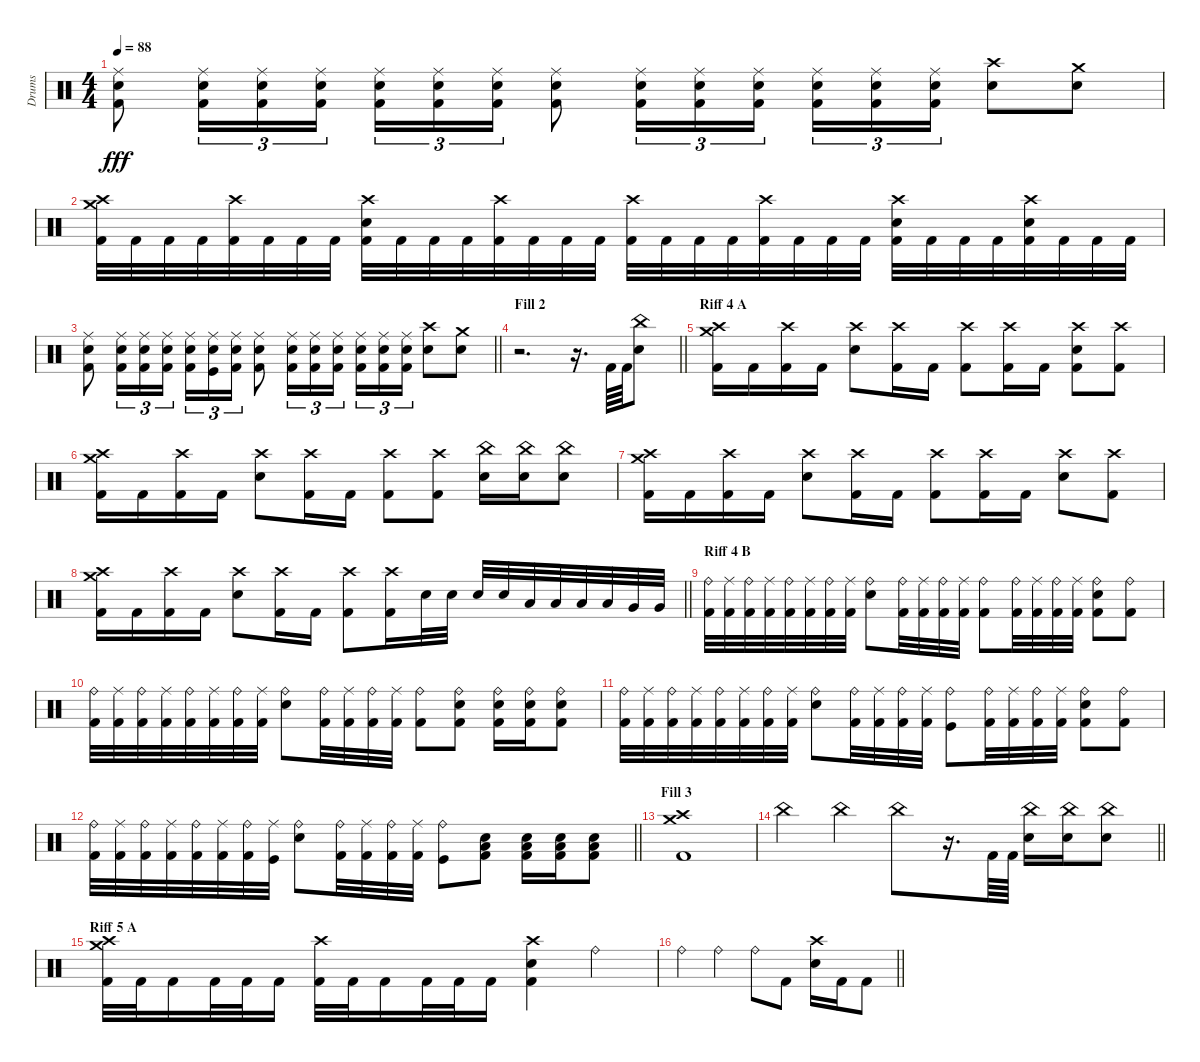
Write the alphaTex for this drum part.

\track ("Drums" "Drums") {instrument percussion}
\staff {score}
\articulation defaults
\ts (4 4)
\tempo 88
\clef neutral
\ks c
("Ride (middle)" "Electric Snare (hit)" "Kick (hit) 2").8{dy fff} ("Ride (middle)" "Electric Snare (hit)" "Kick (hit) 2").16{tu (3 2)} ("Ride (middle)" "Electric Snare (hit)" "Kick (hit) 2").16{tu (3 2)} ("Ride (middle)" "Electric Snare (hit)" "Kick (hit) 2").16{tu (3 2)} ("Ride (middle)" "Electric Snare (hit)" "Kick (hit) 2").16{tu (3 2)} ("Ride (middle)" "Electric Snare (hit)" "Kick (hit) 2").16{tu (3 2)} ("Ride (middle)" "Electric Snare (hit)" "Kick (hit) 2").16{tu (3 2)} ("Ride (middle)" "Electric Snare (hit)" "Kick (hit) 2").8 ("Ride (middle)" "Electric Snare (hit)" "Kick (hit) 2").16{tu (3 2)} ("Ride (middle)" "Electric Snare (hit)" "Kick (hit) 2").16{tu (3 2)} ("Ride (middle)" "Electric Snare (hit)" "Kick (hit) 2").16{tu (3 2) beam splitsecondary} ("Ride (middle)" "Electric Snare (hit)" "Kick (hit) 2").16{tu (3 2)} ("Ride (middle)" "Electric Snare (hit)" "Kick (hit) 2").16{tu (3 2)} ("Ride (middle)" "Electric Snare (hit)" "Kick (hit) 2").16{tu (3 2)} ("Crash high (hit)" "Electric Snare (hit)").8 ("Crash medium (hit)" "Electric Snare (hit)").8 |
("Crash medium (hit)" "Crash high (hit)" "Kick (hit) 2").32 "Kick (hit) 2".32 "Kick (hit) 2".32 "Kick (hit) 2".32 ("Crash high (hit)" "Kick (hit) 2").32 "Kick (hit) 2".32 "Kick (hit) 2".32 "Kick (hit) 2".32 ("Crash high (hit)" "Electric Snare (hit)" "Kick (hit) 2").32 "Kick (hit) 2".32 "Kick (hit) 2".32 "Kick (hit) 2".32 ("Crash high (hit)" "Kick (hit) 2").32 "Kick (hit) 2".32 "Kick (hit) 2".32 "Kick (hit) 2".32 ("Crash high (hit)" "Kick (hit) 2").32 "Kick (hit) 2".32 "Kick (hit) 2".32 "Kick (hit) 2".32 ("Crash high (hit)" "Kick (hit) 2").32 "Kick (hit) 2".32 "Kick (hit) 2".32 "Kick (hit) 2".32 ("Crash high (hit)" "Electric Snare (hit)" "Kick (hit) 2").32 "Kick (hit) 2".32 "Kick (hit) 2".32 "Kick (hit) 2".32 ("Crash high (hit)" "Electric Snare (hit)" "Kick (hit) 2").32 "Kick (hit) 2".32 "Kick (hit) 2".32 "Kick (hit) 2".32 |
\barLineRight lightlight
("Ride (middle)" "Electric Snare (hit)" "Kick (hit) 2").8 ("Ride (middle)" "Electric Snare (hit)" "Kick (hit) 2").16{tu (3 2)} ("Ride (middle)" "Electric Snare (hit)" "Kick (hit) 2").16{tu (3 2)} ("Ride (middle)" "Electric Snare (hit)" "Kick (hit) 2").16{tu (3 2)} ("Ride (middle)" "Electric Snare (hit)" "Kick (hit) 2").16{tu (3 2)} ("Ride (middle)" "Electric Snare (hit)" "Kick (hit)").16{tu (3 2)} ("Ride (middle)" "Electric Snare (hit)" "Kick (hit) 2").16{tu (3 2)} ("Ride (middle)" "Electric Snare (hit)" "Kick (hit) 2").8 ("Ride (middle)" "Electric Snare (hit)" "Kick (hit) 2").16{tu (3 2)} ("Ride (middle)" "Electric Snare (hit)" "Kick (hit) 2").16{tu (3 2)} ("Ride (middle)" "Electric Snare (hit)" "Kick (hit) 2").16{tu (3 2) beam splitsecondary} ("Ride (middle)" "Electric Snare (hit)" "Kick (hit) 2").16{tu (3 2)} ("Ride (middle)" "Electric Snare (hit)" "Kick (hit) 2").16{tu (3 2)} ("Ride (middle)" "Electric Snare (hit)" "Kick (hit) 2").16{tu (3 2)} ("Crash high (hit)" "Electric Snare (hit)").8 ("Crash medium (hit)" "Electric Snare (hit)").8 |
\section ("" "Fill 2")
\barLineRight lightlight
r.2{d} r.16{d} "Kick (hit) 2".64 "Kick (hit) 2".64 ("China (hit)" "Electric Snare (hit)").8 |
\section ("" "Riff 4 A")
("Crash medium (hit)" "Crash high (hit)" "Kick (hit) 2").16 "Kick (hit) 2".16 ("Crash high (hit)" "Kick (hit) 2").16 "Kick (hit) 2".16 ("Crash high (hit)" "Electric Snare (hit)").8 ("Crash high (hit)" "Kick (hit) 2").16 "Kick (hit) 2".16 ("Crash high (hit)" "Kick (hit) 2").8 ("Crash high (hit)" "Kick (hit) 2").16 "Kick (hit) 2".16 ("Crash high (hit)" "Electric Snare (hit)" "Kick (hit) 2").8 ("Crash high (hit)" "Kick (hit) 2").8 |
("Crash medium (hit)" "Crash high (hit)" "Kick (hit) 2").16 "Kick (hit) 2".16 ("Crash high (hit)" "Kick (hit) 2").16 "Kick (hit) 2".16 ("Crash high (hit)" "Electric Snare (hit)").8 ("Crash high (hit)" "Kick (hit) 2").16 "Kick (hit) 2".16 ("Crash high (hit)" "Kick (hit) 2").8 ("Crash high (hit)" "Kick (hit) 2").8 ("China (hit)" "Electric Snare (hit)").16 ("China (hit)" "Electric Snare (hit)").16 ("China (hit)" "Electric Snare (hit)").8 |
("Crash medium (hit)" "Crash high (hit)" "Kick (hit) 2").16 "Kick (hit) 2".16 ("Crash high (hit)" "Kick (hit) 2").16 "Kick (hit) 2".16 ("Crash high (hit)" "Electric Snare (hit)").8 ("Crash high (hit)" "Kick (hit) 2").16 "Kick (hit) 2".16 ("Crash high (hit)" "Kick (hit) 2").8 ("Crash high (hit)" "Kick (hit) 2").16 "Kick (hit) 2".16 ("Crash high (hit)" "Electric Snare (hit)").8 ("Crash high (hit)" "Kick (hit) 2").8 |
\barLineRight lightlight
("Crash medium (hit)" "Crash high (hit)" "Kick (hit) 2").16 "Kick (hit) 2".16 ("Crash high (hit)" "Kick (hit) 2").16 "Kick (hit) 2".16 ("Crash high (hit)" "Electric Snare (hit)").8 ("Crash high (hit)" "Kick (hit) 2").16 "Kick (hit) 2".16 ("Crash high (hit)" "Kick (hit) 2").8 ("Crash high (hit)" "Kick (hit) 2").16 "Electric Snare (hit)".32 "Electric Snare (hit)".32 "Electric Snare (hit)".32 "Electric Snare (hit)".32 "Low Tom (hit)".32 "Low Tom (hit)".32 "Low Tom (hit)".32 "Low Tom (hit)".32 "Very Low Tom (hit)".32 "Very Low Tom (hit)".32 |
\section ("" "Riff 4 B")
("Ride (bell)" "Kick (hit) 2").32 ("Ride (middle)" "Kick (hit) 2").32 ("Ride (bell)" "Kick (hit) 2").32 ("Ride (middle)" "Kick (hit) 2").32 ("Ride (bell)" "Kick (hit) 2").32 ("Ride (middle)" "Kick (hit) 2").32 ("Ride (bell)" "Kick (hit) 2").32 ("Ride (middle)" "Kick (hit) 2").32 ("Ride (bell)" "Electric Snare (hit)").8 ("Ride (bell)" "Kick (hit) 2").32 ("Ride (middle)" "Kick (hit) 2").32 ("Ride (bell)" "Kick (hit) 2").32 ("Ride (middle)" "Kick (hit) 2").32 ("Ride (bell)" "Kick (hit) 2").8 ("Ride (bell)" "Kick (hit) 2").32 ("Ride (middle)" "Kick (hit) 2").32 ("Ride (bell)" "Kick (hit) 2").32 ("Ride (middle)" "Kick (hit) 2").32 ("Ride (bell)" "Electric Snare (hit)" "Kick (hit) 2").8 ("Ride (bell)" "Kick (hit) 2").8 |
("Ride (bell)" "Kick (hit) 2").32 ("Ride (middle)" "Kick (hit) 2").32 ("Ride (bell)" "Kick (hit) 2").32 ("Ride (middle)" "Kick (hit) 2").32 ("Ride (bell)" "Kick (hit) 2").32 ("Ride (middle)" "Kick (hit) 2").32 ("Ride (bell)" "Kick (hit) 2").32 ("Ride (middle)" "Kick (hit) 2").32 ("Ride (bell)" "Electric Snare (hit)").8 ("Ride (bell)" "Kick (hit) 2").32 ("Ride (middle)" "Kick (hit) 2").32 ("Ride (bell)" "Kick (hit) 2").32 ("Ride (middle)" "Kick (hit) 2").32 ("Ride (bell)" "Kick (hit) 2").8 ("Ride (bell)" "Electric Snare (hit)" "Kick (hit) 2").8 ("Ride (bell)" "Electric Snare (hit)" "Kick (hit) 2").16 ("Ride (bell)" "Electric Snare (hit)" "Kick (hit) 2").16 ("Ride (bell)" "Electric Snare (hit)" "Kick (hit) 2").8 |
("Ride (bell)" "Kick (hit) 2").32 ("Ride (middle)" "Kick (hit) 2").32 ("Ride (bell)" "Kick (hit) 2").32 ("Ride (middle)" "Kick (hit) 2").32 ("Ride (bell)" "Kick (hit) 2").32 ("Ride (middle)" "Kick (hit) 2").32 ("Ride (bell)" "Kick (hit) 2").32 ("Ride (middle)" "Kick (hit) 2").32 ("Ride (bell)" "Electric Snare (hit)").8 ("Ride (bell)" "Kick (hit) 2").32 ("Ride (middle)" "Kick (hit) 2").32 ("Ride (bell)" "Kick (hit) 2").32 ("Ride (middle)" "Kick (hit) 2").32 ("Ride (bell)" "Kick (hit)").8 ("Ride (bell)" "Kick (hit) 2").32 ("Ride (middle)" "Kick (hit) 2").32 ("Ride (bell)" "Kick (hit) 2").32 ("Ride (middle)" "Kick (hit) 2").32 ("Ride (bell)" "Electric Snare (hit)" "Kick (hit) 2").8 ("Ride (bell)" "Kick (hit) 2").8 |
\barLineRight lightlight
("Ride (bell)" "Kick (hit) 2").32 ("Ride (middle)" "Kick (hit) 2").32 ("Ride (bell)" "Kick (hit) 2").32 ("Ride (middle)" "Kick (hit) 2").32 ("Ride (bell)" "Kick (hit) 2").32 ("Ride (middle)" "Kick (hit) 2").32 ("Ride (bell)" "Kick (hit) 2").32 ("Ride (middle)" "Kick (hit)").32 ("Ride (bell)" "Electric Snare (hit)").8 ("Ride (bell)" "Kick (hit) 2").32 ("Ride (middle)" "Kick (hit) 2").32 ("Ride (bell)" "Kick (hit) 2").32 ("Ride (middle)" "Kick (hit) 2").32 ("Ride (bell)" "Kick (hit)").8 ("Low Floor Tom (hit)" "Electric Snare (hit)" "Kick (hit) 2").8 ("Low Floor Tom (hit)" "Electric Snare (hit)" "Kick (hit) 2").16 ("Low Floor Tom (hit)" "Electric Snare (hit)" "Kick (hit) 2").16 ("Low Floor Tom (hit)" "Electric Snare (hit)" "Kick (hit) 2").8 |
\section ("" "Fill 3")
("Crash medium (hit)" "Crash high (hit)" "Kick (hit) 2").1 |
\barLineRight lightlight "China (hit)".4 "China (hit)".4 "China (hit)".8
r.16{d} "Kick (hit) 2".64 "Kick (hit) 2".64 ("China (hit)" "Electric Snare (hit)").16 ("China (hit)" "Electric Snare (hit)").16 ("China (hit)" "Electric Snare (hit)").8 |
\section ("" "Riff 5 A")
("Crash medium (hit)" "Crash high (hit)" "Kick (hit) 2").32 "Kick (hit) 2".32 "Kick (hit) 2".16 "Kick (hit) 2".32 "Kick (hit) 2".32 "Kick (hit) 2".16 ("Crash high (hit)" "Kick (hit) 2").32 "Kick (hit) 2".32 "Kick (hit) 2".16 "Kick (hit) 2".32 "Kick (hit) 2".32 "Kick (hit) 2".16 ("Crash high (hit)" "Electric Snare (hit)" "Kick (hit) 2").4 "Ride (bell)".4 |
\barLineRight lightlight "Ride (bell)".4 "Ride (bell)".4 "Ride (bell)".8 "Kick (hit) 2".8
("Crash high (hit)" "Electric Snare (hit)").16 "Kick (hit) 2".16 "Kick (hit) 2".8
